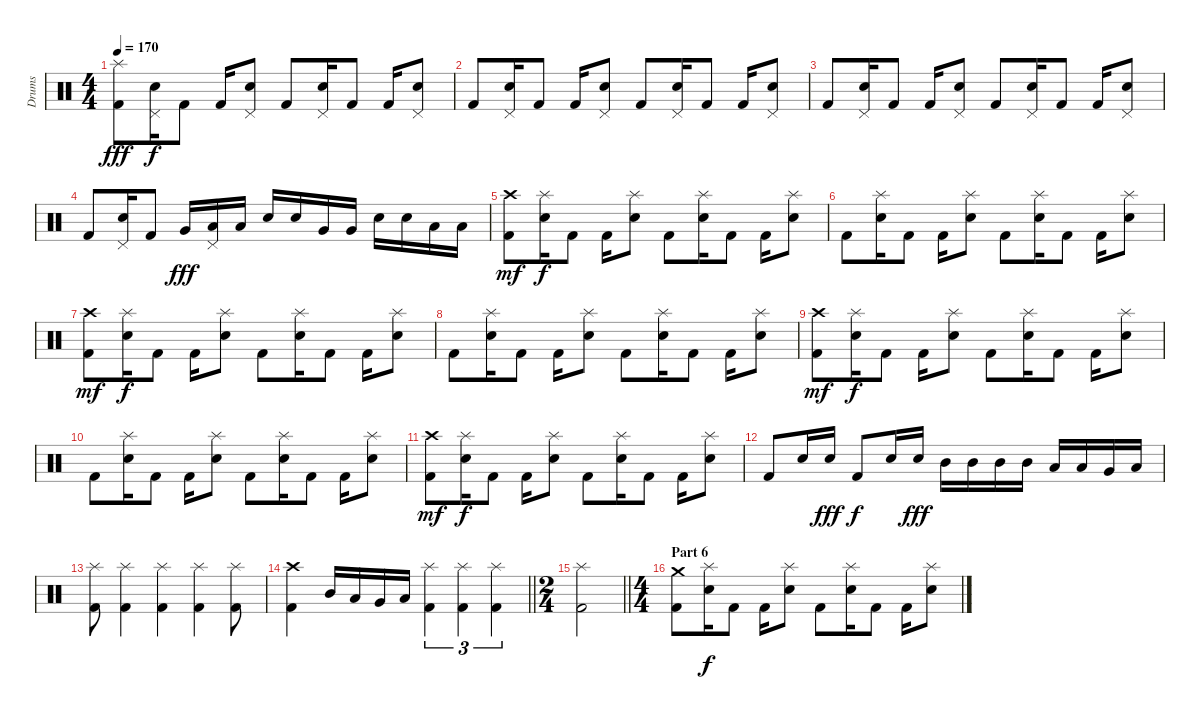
\track ("Drums" "Drums") {instrument percussion}
\staff {score}
\articulation defaults
\ts (4 4)
\tempo 170
\clef neutral
\ks c
("Kick (hit) 2" "Splash (hit)").8{dy fff} ("Electric Snare (hit)" "Pedal Hi-Hat (hit)").16{dy f} "Kick (hit) 2".8 "Kick (hit) 2".16 ("Electric Snare (hit)" "Pedal Hi-Hat (hit)").8 "Kick (hit) 2".8 ("Electric Snare (hit)" "Pedal Hi-Hat (hit)").16 "Kick (hit) 2".8 "Kick (hit) 2".16 ("Electric Snare (hit)" "Pedal Hi-Hat (hit)").8 |
"Kick (hit) 2".8 ("Electric Snare (hit)" "Pedal Hi-Hat (hit)").16 "Kick (hit) 2".8 "Kick (hit) 2".16 ("Electric Snare (hit)" "Pedal Hi-Hat (hit)").8 "Kick (hit) 2".8 ("Electric Snare (hit)" "Pedal Hi-Hat (hit)").16 "Kick (hit) 2".8 "Kick (hit) 2".16 ("Electric Snare (hit)" "Pedal Hi-Hat (hit)").8 |
"Kick (hit) 2".8 ("Electric Snare (hit)" "Pedal Hi-Hat (hit)").16 "Kick (hit) 2".8 "Kick (hit) 2".16 ("Electric Snare (hit)" "Pedal Hi-Hat (hit)").8 "Kick (hit) 2".8 ("Electric Snare (hit)" "Pedal Hi-Hat (hit)").16 "Kick (hit) 2".8 "Kick (hit) 2".16 ("Electric Snare (hit)" "Pedal Hi-Hat (hit)").8 |
"Kick (hit) 2".8 ("Electric Snare (hit)" "Pedal Hi-Hat (hit)").16 "Kick (hit) 2".8 "Very Low Tom (hit)".16{dy fff} ("Low Tom (hit)" "Pedal Hi-Hat (hit)").16 "Low Tom (hit)".16 "Electric Snare (hit)".16 "Electric Snare (hit)".16 "Very Low Tom (hit)".16 "Very Low Tom (hit)".16 "Electric Snare (hit)".16 "Electric Snare (hit)".16 "Low Floor Tom (hit)".16 "Low Floor Tom (hit)".16 |
("Kick (hit) 2" "Crash high (hit)").8{dy mf} ("Electric Snare (hit)" "Splash (hit)").16{dy f} "Kick (hit) 2".8 "Kick (hit) 2".16 ("Electric Snare (hit)" "Splash (hit)").8 "Kick (hit) 2".8 ("Electric Snare (hit)" "Splash (hit)").16 "Kick (hit) 2".8 "Kick (hit) 2".16 ("Electric Snare (hit)" "Splash (hit)").8 |
"Kick (hit) 2".8 ("Electric Snare (hit)" "Splash (hit)").16 "Kick (hit) 2".8 "Kick (hit) 2".16 ("Electric Snare (hit)" "Splash (hit)").8 "Kick (hit) 2".8 ("Electric Snare (hit)" "Splash (hit)").16 "Kick (hit) 2".8 "Kick (hit) 2".16 ("Electric Snare (hit)" "Splash (hit)").8 |
("Kick (hit) 2" "Crash high (hit)").8{dy mf} ("Electric Snare (hit)" "Splash (hit)").16{dy f} "Kick (hit) 2".8 "Kick (hit) 2".16 ("Electric Snare (hit)" "Splash (hit)").8 "Kick (hit) 2".8 ("Electric Snare (hit)" "Splash (hit)").16 "Kick (hit) 2".8 "Kick (hit) 2".16 ("Electric Snare (hit)" "Splash (hit)").8 |
"Kick (hit) 2".8 ("Electric Snare (hit)" "Splash (hit)").16 "Kick (hit) 2".8 "Kick (hit) 2".16 ("Electric Snare (hit)" "Splash (hit)").8 "Kick (hit) 2".8 ("Electric Snare (hit)" "Splash (hit)").16 "Kick (hit) 2".8 "Kick (hit) 2".16 ("Electric Snare (hit)" "Splash (hit)").8 |
("Kick (hit) 2" "Crash high (hit)").8{dy mf} ("Electric Snare (hit)" "Splash (hit)").16{dy f} "Kick (hit) 2".8 "Kick (hit) 2".16 ("Electric Snare (hit)" "Splash (hit)").8 "Kick (hit) 2".8 ("Electric Snare (hit)" "Splash (hit)").16 "Kick (hit) 2".8 "Kick (hit) 2".16 ("Electric Snare (hit)" "Splash (hit)").8 |
"Kick (hit) 2".8 ("Electric Snare (hit)" "Splash (hit)").16 "Kick (hit) 2".8 "Kick (hit) 2".16 ("Electric Snare (hit)" "Splash (hit)").8 "Kick (hit) 2".8 ("Electric Snare (hit)" "Splash (hit)").16 "Kick (hit) 2".8 "Kick (hit) 2".16 ("Electric Snare (hit)" "Splash (hit)").8 |
("Kick (hit) 2" "Crash high (hit)").8{dy mf} ("Electric Snare (hit)" "Splash (hit)").16{dy f} "Kick (hit) 2".8 "Kick (hit) 2".16 ("Electric Snare (hit)" "Splash (hit)").8 "Kick (hit) 2".8 ("Electric Snare (hit)" "Splash (hit)").16 "Kick (hit) 2".8 "Kick (hit) 2".16 ("Electric Snare (hit)" "Splash (hit)").8 |
"Kick (hit) 2".8 "Electric Snare (hit)".16 "Electric Snare (hit)".16{dy fff} "Kick (hit) 2".8{dy f} "Electric Snare (hit)".16 "Electric Snare (hit)".16{dy fff} "Mid Tom (hit)".16 "Mid Tom (hit)".16 "Mid Tom (hit)".16 "Mid Tom (hit)".16 "Low Tom (hit)".16 "Low Tom (hit)".16 "Very Low Tom (hit)".16 "Low Floor Tom (hit)".16 |
("Kick (hit) 2" "Splash (hit)").8 ("Kick (hit) 2" "Splash (hit)").4 ("Kick (hit) 2" "Splash (hit)").4 ("Kick (hit) 2" "Splash (hit)").4 ("Kick (hit) 2" "Splash (hit)").8 |
\barLineRight lightlight
("Kick (hit) 2" "Crash high (hit)").4 "Mid Tom (hit)".16 "Low Tom (hit)".16 "Very Low Tom (hit)".16 "Low Floor Tom (hit)".16 ("Kick (hit) 2" "Splash (hit)").4{tu (3 2)} ("Kick (hit) 2" "Splash (hit)").4{tu (3 2)} ("Kick (hit) 2" "Splash (hit)").4{tu (3 2)} |
\ts (2 4)
\barLineRight lightlight
("Kick (hit) 2" "Splash (hit)").2 |
\ts (4 4)
\section ("" "Part 6")
("Kick (hit) 2" "Crash medium (hit)").8 ("Electric Snare (hit)" "Splash (hit)").16{dy f} "Kick (hit) 2".8 "Kick (hit) 2".16 ("Electric Snare (hit)" "Splash (hit)").8 "Kick (hit) 2".8 ("Electric Snare (hit)" "Splash (hit)").16 "Kick (hit) 2".8 "Kick (hit) 2".16 ("Electric Snare (hit)" "Splash (hit)").8
